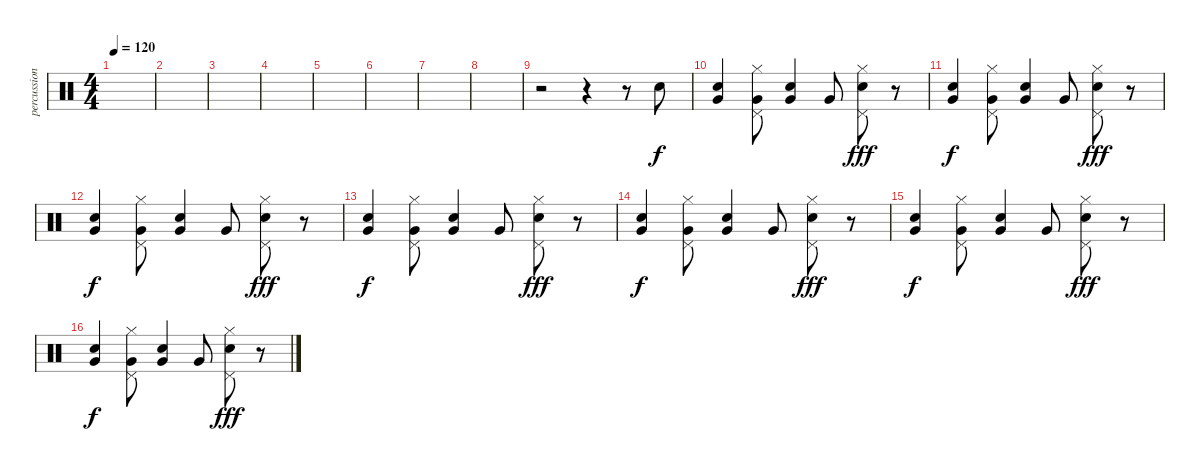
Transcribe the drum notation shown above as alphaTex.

\track ("percussion" "percussion") {instrument percussion}
\staff {score}
\articulation defaults
\ts (4 4)
\tempo 120
\clef neutral
\ks c
|
|
|
|
|
|
|
|
r.2 r.4 r.8 "Snare (hit) 2".8 |
("Snare (hit) 2" "Very Low Tom (hit)").4 ("Pedal Hi-Hat (hit)" "Hi-Hat (closed)" "Very Low Tom (hit)").8 ("Snare (hit) 2" "Very Low Tom (hit)").4 "Very Low Tom (hit)".8 ("Pedal Hi-Hat (hit)" "Hi-Hat (closed)" "Snare (hit) 2").8{dy fff} r.8 |
("Snare (hit) 2" "Very Low Tom (hit)").4{dy f} ("Pedal Hi-Hat (hit)" "Hi-Hat (closed)" "Very Low Tom (hit)").8 ("Snare (hit) 2" "Very Low Tom (hit)").4 "Very Low Tom (hit)".8 ("Pedal Hi-Hat (hit)" "Hi-Hat (closed)" "Snare (hit) 2").8{dy fff} r.8 |
("Snare (hit) 2" "Very Low Tom (hit)").4{dy f} ("Pedal Hi-Hat (hit)" "Hi-Hat (closed)" "Very Low Tom (hit)").8 ("Snare (hit) 2" "Very Low Tom (hit)").4 "Very Low Tom (hit)".8 ("Pedal Hi-Hat (hit)" "Hi-Hat (closed)" "Snare (hit) 2").8{dy fff} r.8 |
("Snare (hit) 2" "Very Low Tom (hit)").4{dy f} ("Pedal Hi-Hat (hit)" "Hi-Hat (closed)" "Very Low Tom (hit)").8 ("Snare (hit) 2" "Very Low Tom (hit)").4 "Very Low Tom (hit)".8 ("Pedal Hi-Hat (hit)" "Hi-Hat (closed)" "Snare (hit) 2").8{dy fff} r.8 |
("Snare (hit) 2" "Very Low Tom (hit)").4{dy f} ("Pedal Hi-Hat (hit)" "Hi-Hat (closed)" "Very Low Tom (hit)").8 ("Snare (hit) 2" "Very Low Tom (hit)").4 "Very Low Tom (hit)".8 ("Pedal Hi-Hat (hit)" "Hi-Hat (closed)" "Snare (hit) 2").8{dy fff} r.8 |
("Snare (hit) 2" "Very Low Tom (hit)").4{dy f} ("Pedal Hi-Hat (hit)" "Hi-Hat (closed)" "Very Low Tom (hit)").8 ("Snare (hit) 2" "Very Low Tom (hit)").4 "Very Low Tom (hit)".8 ("Pedal Hi-Hat (hit)" "Hi-Hat (closed)" "Snare (hit) 2").8{dy fff} r.8 |
("Snare (hit) 2" "Very Low Tom (hit)").4{dy f} ("Pedal Hi-Hat (hit)" "Hi-Hat (closed)" "Very Low Tom (hit)").8 ("Snare (hit) 2" "Very Low Tom (hit)").4 "Very Low Tom (hit)".8 ("Pedal Hi-Hat (hit)" "Hi-Hat (closed)" "Snare (hit) 2").8{dy fff} r.8
